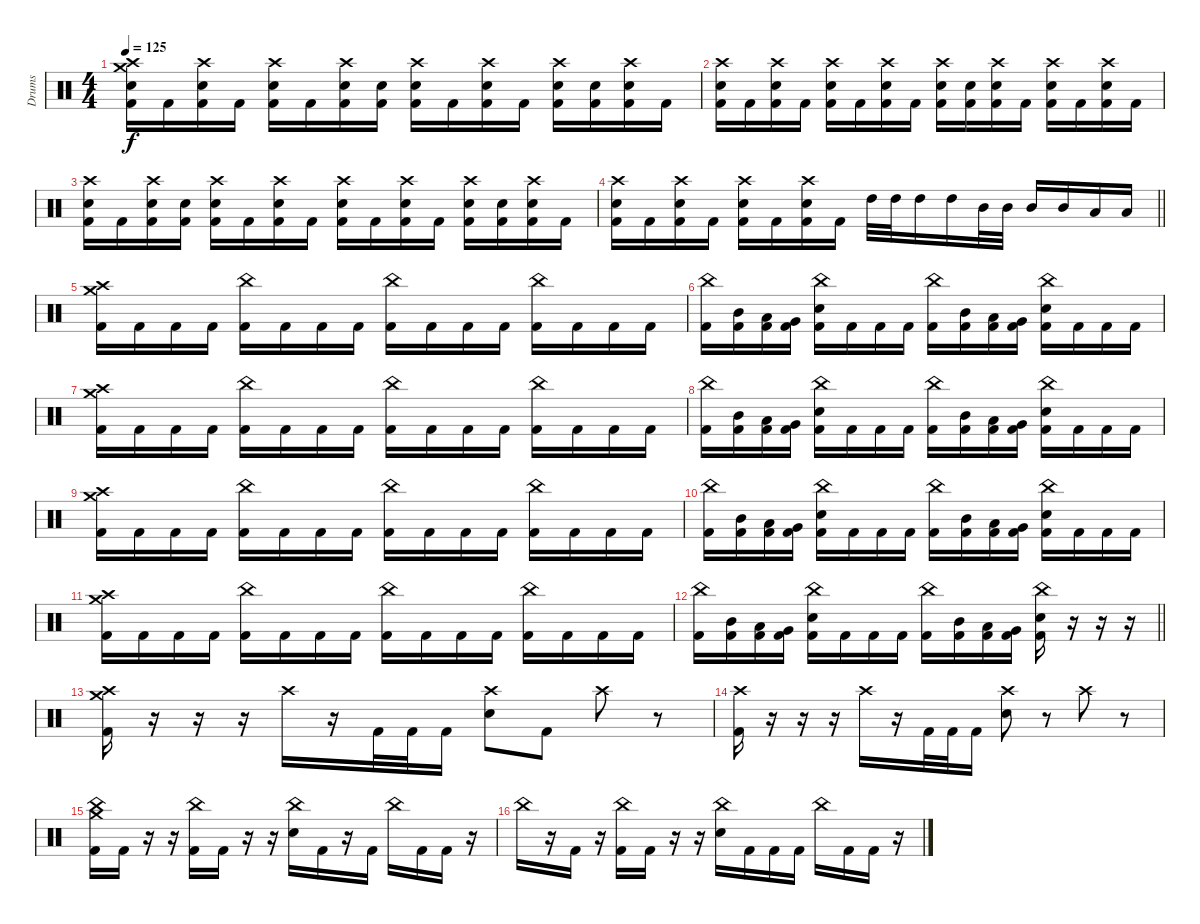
\track ("Drums" "Drums") {instrument percussion}
\staff {score}
\articulation defaults
\ts (4 4)
\tempo 125
\clef neutral
\ks c
("Crash medium (hit)" "Crash high (hit)" "Electric Snare (hit)" "Kick (hit) 2").16{dy f} "Kick (hit) 2".16 ("Crash high (hit)" "Electric Snare (hit)" "Kick (hit) 2").16 "Kick (hit) 2".16 ("Crash high (hit)" "Electric Snare (hit)" "Kick (hit) 2").16 "Kick (hit) 2".16 ("Crash high (hit)" "Electric Snare (hit)" "Kick (hit) 2").16 ("Electric Snare (hit)" "Kick (hit) 2").16 ("Crash high (hit)" "Electric Snare (hit)" "Kick (hit) 2").16 "Kick (hit) 2".16 ("Crash high (hit)" "Electric Snare (hit)" "Kick (hit) 2").16 "Kick (hit) 2".16 ("Crash high (hit)" "Electric Snare (hit)" "Kick (hit) 2").16 ("Electric Snare (hit)" "Kick (hit) 2").16 ("Crash high (hit)" "Electric Snare (hit)" "Kick (hit) 2").16 "Kick (hit) 2".16 |
("Crash high (hit)" "Electric Snare (hit)" "Kick (hit) 2").16 "Kick (hit) 2".16 ("Crash high (hit)" "Electric Snare (hit)" "Kick (hit) 2").16 "Kick (hit) 2".16 ("Crash high (hit)" "Electric Snare (hit)" "Kick (hit) 2").16 "Kick (hit) 2".16 ("Crash high (hit)" "Electric Snare (hit)" "Kick (hit) 2").16 "Kick (hit) 2".16 ("Crash high (hit)" "Electric Snare (hit)" "Kick (hit) 2").16 ("Electric Snare (hit)" "Kick (hit) 2").16 ("Crash high (hit)" "Electric Snare (hit)" "Kick (hit) 2").16 "Kick (hit) 2".16 ("Crash high (hit)" "Electric Snare (hit)" "Kick (hit) 2").16 "Kick (hit) 2".16 ("Crash high (hit)" "Electric Snare (hit)" "Kick (hit) 2").16 "Kick (hit) 2".16 |
("Crash high (hit)" "Electric Snare (hit)" "Kick (hit) 2").16 "Kick (hit) 2".16 ("Crash high (hit)" "Electric Snare (hit)" "Kick (hit) 2").16 ("Electric Snare (hit)" "Kick (hit) 2").16 ("Crash high (hit)" "Electric Snare (hit)" "Kick (hit) 2").16 "Kick (hit) 2".16 ("Crash high (hit)" "Electric Snare (hit)" "Kick (hit) 2").16 "Kick (hit) 2".16 ("Crash high (hit)" "Electric Snare (hit)" "Kick (hit) 2").16 "Kick (hit) 2".16 ("Crash high (hit)" "Electric Snare (hit)" "Kick (hit) 2").16 "Kick (hit) 2".16 ("Crash high (hit)" "Electric Snare (hit)" "Kick (hit) 2").16 ("Electric Snare (hit)" "Kick (hit) 2").16 ("Crash high (hit)" "Electric Snare (hit)" "Kick (hit) 2").16 "Kick (hit) 2".16 |
\barLineRight lightlight
("Crash high (hit)" "Electric Snare (hit)" "Kick (hit) 2").16 "Kick (hit) 2".16 ("Crash high (hit)" "Electric Snare (hit)" "Kick (hit) 2").16 "Kick (hit) 2".16 ("Crash high (hit)" "Electric Snare (hit)" "Kick (hit) 2").16 "Kick (hit) 2".16 ("Crash high (hit)" "Electric Snare (hit)" "Kick (hit) 2").16 "Kick (hit) 2".16 "High Tom (hit)".32 "High Tom (hit)".32 "High Tom (hit)".16 "High Tom (hit)".16 "Mid Tom (hit)".32 "Mid Tom (hit)".32 "Mid Tom (hit)".16 "Mid Tom (hit)".16 "Low Tom (hit)".16 "Low Tom (hit)".16 |
\section ("" "")
("Crash medium (hit)" "Crash high (hit)" "Kick (hit) 2").16 "Kick (hit) 2".16 "Kick (hit) 2".16 "Kick (hit) 2".16 ("China (hit)" "Kick (hit) 2").16 "Kick (hit) 2".16 "Kick (hit) 2".16 "Kick (hit) 2".16 ("China (hit)" "Kick (hit) 2").16 "Kick (hit) 2".16 "Kick (hit) 2".16 "Kick (hit) 2".16 ("China (hit)" "Kick (hit) 2").16 "Kick (hit) 2".16 "Kick (hit) 2".16 "Kick (hit) 2".16 |
("China (hit)" "Kick (hit) 2").16 ("Mid Tom (hit)" "Kick (hit) 2").16 ("Low Tom (hit)" "Kick (hit) 2").16 ("Very Low Tom (hit)" "Kick (hit) 2").16 ("China (hit)" "Electric Snare (hit)" "Kick (hit) 2").16 "Kick (hit) 2".16 "Kick (hit) 2".16 "Kick (hit) 2".16 ("China (hit)" "Kick (hit) 2").16 ("Mid Tom (hit)" "Kick (hit) 2").16 ("Low Tom (hit)" "Kick (hit) 2").16 ("Very Low Tom (hit)" "Kick (hit) 2").16 ("China (hit)" "Electric Snare (hit)" "Kick (hit) 2").16 "Kick (hit) 2".16 "Kick (hit) 2".16 "Kick (hit) 2".16 |
("Crash medium (hit)" "Crash high (hit)" "Kick (hit) 2").16 "Kick (hit) 2".16 "Kick (hit) 2".16 "Kick (hit) 2".16 ("China (hit)" "Kick (hit) 2").16 "Kick (hit) 2".16 "Kick (hit) 2".16 "Kick (hit) 2".16 ("China (hit)" "Kick (hit) 2").16 "Kick (hit) 2".16 "Kick (hit) 2".16 "Kick (hit) 2".16 ("China (hit)" "Kick (hit) 2").16 "Kick (hit) 2".16 "Kick (hit) 2".16 "Kick (hit) 2".16 |
("China (hit)" "Kick (hit) 2").16 ("Mid Tom (hit)" "Kick (hit) 2").16 ("Low Tom (hit)" "Kick (hit) 2").16 ("Very Low Tom (hit)" "Kick (hit) 2").16 ("China (hit)" "Electric Snare (hit)" "Kick (hit) 2").16 "Kick (hit) 2".16 "Kick (hit) 2".16 "Kick (hit) 2".16 ("China (hit)" "Kick (hit) 2").16 ("Mid Tom (hit)" "Kick (hit) 2").16 ("Low Tom (hit)" "Kick (hit) 2").16 ("Very Low Tom (hit)" "Kick (hit) 2").16 ("China (hit)" "Electric Snare (hit)" "Kick (hit) 2").16 "Kick (hit) 2".16 "Kick (hit) 2".16 "Kick (hit) 2".16 |
("Crash medium (hit)" "Crash high (hit)" "Kick (hit) 2").16 "Kick (hit) 2".16 "Kick (hit) 2".16 "Kick (hit) 2".16 ("China (hit)" "Kick (hit) 2").16 "Kick (hit) 2".16 "Kick (hit) 2".16 "Kick (hit) 2".16 ("China (hit)" "Kick (hit) 2").16 "Kick (hit) 2".16 "Kick (hit) 2".16 "Kick (hit) 2".16 ("China (hit)" "Kick (hit) 2").16 "Kick (hit) 2".16 "Kick (hit) 2".16 "Kick (hit) 2".16 |
("China (hit)" "Kick (hit) 2").16 ("Mid Tom (hit)" "Kick (hit) 2").16 ("Low Tom (hit)" "Kick (hit) 2").16 ("Very Low Tom (hit)" "Kick (hit) 2").16 ("China (hit)" "Electric Snare (hit)" "Kick (hit) 2").16 "Kick (hit) 2".16 "Kick (hit) 2".16 "Kick (hit) 2".16 ("China (hit)" "Kick (hit) 2").16 ("Mid Tom (hit)" "Kick (hit) 2").16 ("Low Tom (hit)" "Kick (hit) 2").16 ("Very Low Tom (hit)" "Kick (hit) 2").16 ("China (hit)" "Electric Snare (hit)" "Kick (hit) 2").16 "Kick (hit) 2".16 "Kick (hit) 2".16 "Kick (hit) 2".16 |
("Crash medium (hit)" "Crash high (hit)" "Kick (hit) 2").16 "Kick (hit) 2".16 "Kick (hit) 2".16 "Kick (hit) 2".16 ("China (hit)" "Kick (hit) 2").16 "Kick (hit) 2".16 "Kick (hit) 2".16 "Kick (hit) 2".16 ("China (hit)" "Kick (hit) 2").16 "Kick (hit) 2".16 "Kick (hit) 2".16 "Kick (hit) 2".16 ("China (hit)" "Kick (hit) 2").16 "Kick (hit) 2".16 "Kick (hit) 2".16 "Kick (hit) 2".16 |
\barLineRight lightlight
("China (hit)" "Kick (hit) 2").16 ("Mid Tom (hit)" "Kick (hit) 2").16 ("Low Tom (hit)" "Kick (hit) 2").16 ("Very Low Tom (hit)" "Kick (hit) 2").16 ("China (hit)" "Electric Snare (hit)" "Kick (hit) 2").16 "Kick (hit) 2".16 "Kick (hit) 2".16 "Kick (hit) 2".16 ("China (hit)" "Kick (hit) 2").16 ("Mid Tom (hit)" "Kick (hit) 2").16 ("Low Tom (hit)" "Kick (hit) 2").16 ("Very Low Tom (hit)" "Kick (hit) 2").16 ("China (hit)" "Electric Snare (hit)" "Kick (hit) 2").16 r.16 r.16 r.16 |
\section ("" "")
("Crash medium (hit)" "Crash high (hit)" "Kick (hit) 2").16 r.16 r.16 r.16 "Crash high (hit)".16 r.16 "Kick (hit) 2".32 "Kick (hit) 2".32 "Kick (hit) 2".16 ("Crash high (hit)" "Electric Snare (hit)").8 "Kick (hit) 2".8 "Crash high (hit)".8 r.8 |
("Crash high (hit)" "Kick (hit) 2").16 r.16 r.16 r.16 "Crash high (hit)".16 r.16 "Kick (hit) 2".32 "Kick (hit) 2".32 "Kick (hit) 2".16 ("Crash high (hit)" "Electric Snare (hit)").8 r.8 "Crash high (hit)".8 r.8 |
("China (hit)" "Crash medium (hit)" "Kick (hit) 2").16 "Kick (hit) 2".16 r.16 r.16 ("China (hit)" "Kick (hit) 2").16 "Kick (hit) 2".16 r.16 r.16 ("China (hit)" "Electric Snare (hit)").16 "Kick (hit) 2".16 r.16 "Kick (hit) 2".16 "China (hit)".16 "Kick (hit) 2".16 "Kick (hit) 2".16 r.16 |
"China (hit)".16 r.16 "Kick (hit) 2".16 r.16 ("China (hit)" "Kick (hit) 2").16 "Kick (hit) 2".16 r.16 r.16 ("China (hit)" "Electric Snare (hit)").16 "Kick (hit) 2".16 "Kick (hit) 2".16 "Kick (hit) 2".16 "China (hit)".16 "Kick (hit) 2".16 "Kick (hit) 2".16 r.16
